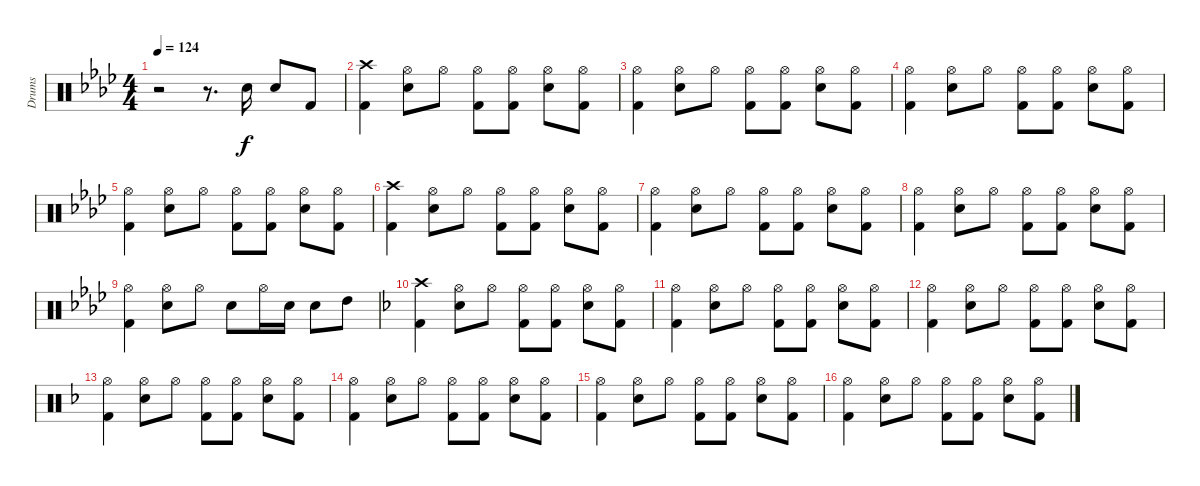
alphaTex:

\track ("Drums" "Drums") {instrument percussion}
\staff {score}
\articulation defaults
\ts (4 4)
\tempo 124
\clef neutral
\ks fminor
r.2{dy f} r.8{d} "Snare (hit) 2".16 "Snare (hit) 2".8 "Kick (hit) 2".8 |
("Kick (hit) 2" "Crash high (hit)").4 ("Snare (hit) 2" "Hi-Hat (open)").8 "Hi-Hat (open)".8 ("Kick (hit) 2" "Hi-Hat (open)").8 ("Kick (hit) 2" "Hi-Hat (open)").8 ("Snare (hit) 2" "Hi-Hat (open)").8 ("Kick (hit) 2" "Hi-Hat (open)").8 |
("Kick (hit) 2" "Hi-Hat (open)").4 ("Snare (hit) 2" "Hi-Hat (open)").8 "Hi-Hat (open)".8 ("Kick (hit) 2" "Hi-Hat (open)").8 ("Kick (hit) 2" "Hi-Hat (open)").8 ("Snare (hit) 2" "Hi-Hat (open)").8 ("Kick (hit) 2" "Hi-Hat (open)").8 |
("Kick (hit) 2" "Hi-Hat (open)").4 ("Snare (hit) 2" "Hi-Hat (open)").8 "Hi-Hat (open)".8 ("Kick (hit) 2" "Hi-Hat (open)").8 ("Kick (hit) 2" "Hi-Hat (open)").8 ("Snare (hit) 2" "Hi-Hat (open)").8 ("Kick (hit) 2" "Hi-Hat (open)").8 |
("Kick (hit) 2" "Hi-Hat (open)").4 ("Snare (hit) 2" "Hi-Hat (open)").8 "Hi-Hat (open)".8 ("Kick (hit) 2" "Hi-Hat (open)").8 ("Kick (hit) 2" "Hi-Hat (open)").8 ("Snare (hit) 2" "Hi-Hat (open)").8 ("Kick (hit) 2" "Hi-Hat (open)").8 |
("Kick (hit) 2" "Crash high (hit)").4 ("Snare (hit) 2" "Hi-Hat (open)").8 "Hi-Hat (open)".8 ("Kick (hit) 2" "Hi-Hat (open)").8 ("Kick (hit) 2" "Hi-Hat (open)").8 ("Snare (hit) 2" "Hi-Hat (open)").8 ("Kick (hit) 2" "Hi-Hat (open)").8 |
("Kick (hit) 2" "Hi-Hat (open)").4 ("Snare (hit) 2" "Hi-Hat (open)").8 "Hi-Hat (open)".8 ("Kick (hit) 2" "Hi-Hat (open)").8 ("Kick (hit) 2" "Hi-Hat (open)").8 ("Snare (hit) 2" "Hi-Hat (open)").8 ("Kick (hit) 2" "Hi-Hat (open)").8 |
("Kick (hit) 2" "Hi-Hat (open)").4 ("Snare (hit) 2" "Hi-Hat (open)").8 "Hi-Hat (open)".8 ("Kick (hit) 2" "Hi-Hat (open)").8 ("Kick (hit) 2" "Hi-Hat (open)").8 ("Snare (hit) 2" "Hi-Hat (open)").8 ("Kick (hit) 2" "Hi-Hat (open)").8 |
("Kick (hit) 2" "Hi-Hat (open)").4 ("Snare (hit) 2" "Hi-Hat (open)").8 "Hi-Hat (open)".8 "Snare (hit) 2".8 "Hi-Hat (open)".16 "Snare (hit) 2".16 "Snare (hit) 2".8 "High Tom (hit)".8 |
\ks dminor
("Kick (hit) 2" "Crash high (hit)").4 ("Snare (hit) 2" "Hi-Hat (open)").8 "Hi-Hat (open)".8 ("Kick (hit) 2" "Hi-Hat (open)").8 ("Kick (hit) 2" "Hi-Hat (open)").8 ("Snare (hit) 2" "Hi-Hat (open)").8 ("Kick (hit) 2" "Hi-Hat (open)").8 |
("Kick (hit) 2" "Hi-Hat (open)").4 ("Snare (hit) 2" "Hi-Hat (open)").8 "Hi-Hat (open)".8 ("Kick (hit) 2" "Hi-Hat (open)").8 ("Kick (hit) 2" "Hi-Hat (open)").8 ("Snare (hit) 2" "Hi-Hat (open)").8 ("Kick (hit) 2" "Hi-Hat (open)").8 |
("Kick (hit) 2" "Hi-Hat (open)").4 ("Snare (hit) 2" "Hi-Hat (open)").8 "Hi-Hat (open)".8 ("Kick (hit) 2" "Hi-Hat (open)").8 ("Kick (hit) 2" "Hi-Hat (open)").8 ("Snare (hit) 2" "Hi-Hat (open)").8 ("Kick (hit) 2" "Hi-Hat (open)").8 |
("Kick (hit) 2" "Hi-Hat (open)").4 ("Snare (hit) 2" "Hi-Hat (open)").8 "Hi-Hat (open)".8 ("Kick (hit) 2" "Hi-Hat (open)").8 ("Kick (hit) 2" "Hi-Hat (open)").8 ("Snare (hit) 2" "Hi-Hat (open)").8 ("Kick (hit) 2" "Hi-Hat (open)").8 |
("Kick (hit) 2" "Hi-Hat (open)").4 ("Snare (hit) 2" "Hi-Hat (open)").8 "Hi-Hat (open)".8 ("Kick (hit) 2" "Hi-Hat (open)").8 ("Kick (hit) 2" "Hi-Hat (open)").8 ("Snare (hit) 2" "Hi-Hat (open)").8 ("Kick (hit) 2" "Hi-Hat (open)").8 |
("Kick (hit) 2" "Hi-Hat (open)").4 ("Snare (hit) 2" "Hi-Hat (open)").8 "Hi-Hat (open)".8 ("Kick (hit) 2" "Hi-Hat (open)").8 ("Kick (hit) 2" "Hi-Hat (open)").8 ("Snare (hit) 2" "Hi-Hat (open)").8 ("Kick (hit) 2" "Hi-Hat (open)").8 |
("Kick (hit) 2" "Hi-Hat (open)").4 ("Snare (hit) 2" "Hi-Hat (open)").8 "Hi-Hat (open)".8 ("Kick (hit) 2" "Hi-Hat (open)").8 ("Kick (hit) 2" "Hi-Hat (open)").8 ("Snare (hit) 2" "Hi-Hat (open)").8 ("Kick (hit) 2" "Hi-Hat (open)").8
